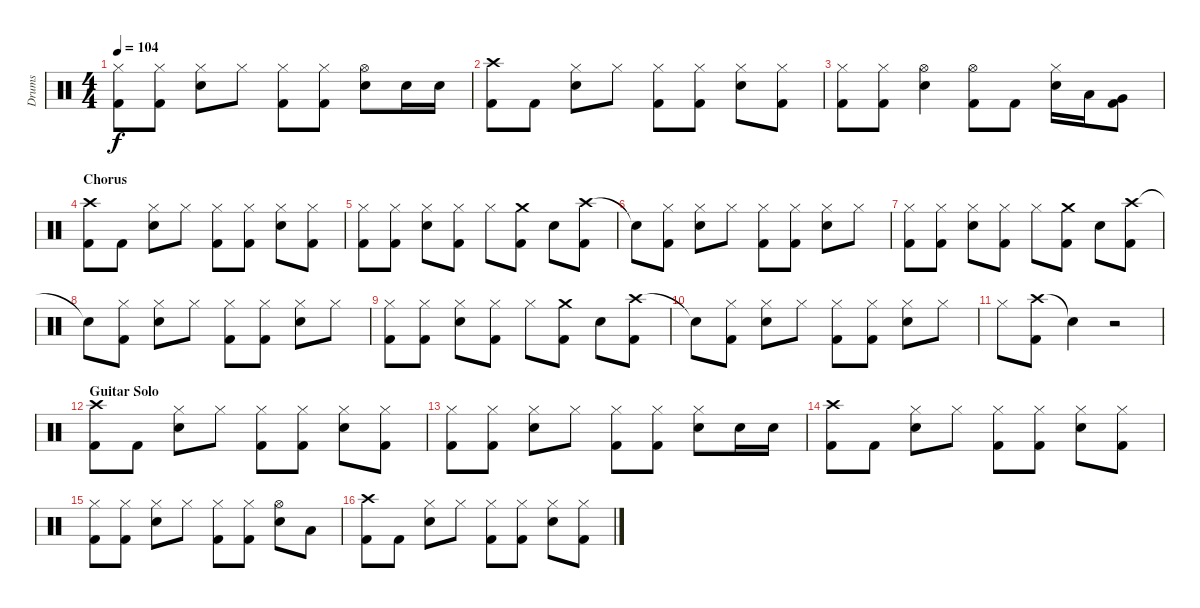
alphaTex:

\track ("Drums" "Drums") {instrument percussion}
\staff {score}
\articulation defaults
\ts (4 4)
\tempo 104
\clef neutral
\ks c
("Hi-Hat (closed)" "Kick (hit) 2").8{dy f} ("Hi-Hat (closed)" "Kick (hit) 2").8 ("Hi-Hat (closed)" "Electric Snare (hit)").8 "Hi-Hat (closed)".8 ("Hi-Hat (closed)" "Kick (hit) 2").8 ("Hi-Hat (closed)" "Kick (hit) 2").8 ("Hi-Hat (open)" "Electric Snare (hit)").8 "Electric Snare (hit)".16 "Electric Snare (hit)".16 |
("Crash high (hit)" "Kick (hit) 2").8 "Kick (hit) 2".8 ("Hi-Hat (closed)" "Electric Snare (hit)").8 "Hi-Hat (closed)".8 ("Hi-Hat (closed)" "Kick (hit) 2").8 ("Hi-Hat (closed)" "Kick (hit) 2").8 ("Hi-Hat (closed)" "Electric Snare (hit)").8 ("Hi-Hat (closed)" "Kick (hit) 2").8 |
("Hi-Hat (closed)" "Kick (hit) 2").8 ("Hi-Hat (closed)" "Kick (hit) 2").8 ("Hi-Hat (open)" "Electric Snare (hit)").4 ("Hi-Hat (open)" "Kick (hit) 2").8 "Kick (hit) 2".8 ("Hi-Hat (closed)" "Electric Snare (hit)").16 "Low Tom (hit)".16 ("Very Low Tom (hit)" "Kick (hit) 2").8 |
\section ("" "Chorus")
("Crash high (hit)" "Kick (hit) 2").8 "Kick (hit) 2".8 ("Hi-Hat (closed)" "Electric Snare (hit)").8 "Hi-Hat (closed)".8 ("Hi-Hat (closed)" "Kick (hit) 2").8 ("Hi-Hat (closed)" "Kick (hit) 2").8 ("Hi-Hat (closed)" "Electric Snare (hit)").8 ("Hi-Hat (closed)" "Kick (hit) 2").8 |
("Hi-Hat (closed)" "Kick (hit) 2").8 ("Hi-Hat (closed)" "Kick (hit) 2").8 ("Hi-Hat (closed)" "Electric Snare (hit)").8 ("Hi-Hat (closed)" "Kick (hit) 2").8 "Hi-Hat (closed)".8 ("Crash medium (hit)" "Kick (hit) 2").8 "Electric Snare (hit)".8 ("Crash high (hit)" "Kick (hit) 2").8 |
"Snare (hit)"{t}.8 ("Hi-Hat (closed)" "Kick (hit) 2").8 ("Hi-Hat (closed)" "Electric Snare (hit)").8 "Hi-Hat (closed)".8 ("Hi-Hat (closed)" "Kick (hit) 2").8 ("Hi-Hat (closed)" "Kick (hit) 2").8 ("Hi-Hat (closed)" "Electric Snare (hit)").8 "Hi-Hat (closed)".8 |
("Hi-Hat (closed)" "Kick (hit) 2").8 ("Hi-Hat (closed)" "Kick (hit) 2").8 ("Hi-Hat (closed)" "Electric Snare (hit)").8 ("Hi-Hat (closed)" "Kick (hit) 2").8 "Hi-Hat (closed)".8 ("Crash medium (hit)" "Kick (hit) 2").8 "Electric Snare (hit)".8 ("Crash high (hit)" "Kick (hit) 2").8 |
"Snare (hit)"{t}.8 ("Hi-Hat (closed)" "Kick (hit) 2").8 ("Hi-Hat (closed)" "Electric Snare (hit)").8 "Hi-Hat (closed)".8 ("Hi-Hat (closed)" "Kick (hit) 2").8 ("Hi-Hat (closed)" "Kick (hit) 2").8 ("Hi-Hat (closed)" "Electric Snare (hit)").8 "Hi-Hat (closed)".8 |
("Hi-Hat (closed)" "Kick (hit) 2").8 ("Hi-Hat (closed)" "Kick (hit) 2").8 ("Hi-Hat (closed)" "Electric Snare (hit)").8 ("Hi-Hat (closed)" "Kick (hit) 2").8 "Hi-Hat (closed)".8 ("Crash medium (hit)" "Kick (hit) 2").8 "Electric Snare (hit)".8 ("Crash high (hit)" "Kick (hit) 2").8 |
"Snare (hit)"{t}.8 ("Hi-Hat (closed)" "Kick (hit) 2").8 ("Hi-Hat (closed)" "Electric Snare (hit)").8 "Hi-Hat (closed)".8 ("Hi-Hat (closed)" "Kick (hit) 2").8 ("Hi-Hat (closed)" "Kick (hit) 2").8 ("Hi-Hat (closed)" "Electric Snare (hit)").8 "Hi-Hat (closed)".8 |
"Hi-Hat (closed)".8 ("Crash high (hit)" "Kick (hit) 2").8 "Snare (hit)"{t}.4 r.2 |
\section ("" "Guitar Solo")
("Crash high (hit)" "Kick (hit) 2").8 "Kick (hit) 2".8 ("Hi-Hat (closed)" "Electric Snare (hit)").8 "Hi-Hat (closed)".8 ("Hi-Hat (closed)" "Kick (hit) 2").8 ("Hi-Hat (closed)" "Kick (hit) 2").8 ("Hi-Hat (closed)" "Electric Snare (hit)").8 ("Hi-Hat (closed)" "Kick (hit) 2").8 |
("Hi-Hat (closed)" "Kick (hit) 2").8 ("Hi-Hat (closed)" "Kick (hit) 2").8 ("Hi-Hat (closed)" "Electric Snare (hit)").8 "Hi-Hat (closed)".8 ("Hi-Hat (closed)" "Kick (hit) 2").8 ("Hi-Hat (closed)" "Kick (hit) 2").8 ("Hi-Hat (closed)" "Electric Snare (hit)").8 "Electric Snare (hit)".16 "Electric Snare (hit)".16 |
("Crash high (hit)" "Kick (hit) 2").8 "Kick (hit) 2".8 ("Hi-Hat (closed)" "Electric Snare (hit)").8 "Hi-Hat (closed)".8 ("Hi-Hat (closed)" "Kick (hit) 2").8 ("Hi-Hat (closed)" "Kick (hit) 2").8 ("Hi-Hat (closed)" "Electric Snare (hit)").8 ("Hi-Hat (closed)" "Kick (hit) 2").8 |
("Hi-Hat (closed)" "Kick (hit) 2").8 ("Hi-Hat (closed)" "Kick (hit) 2").8 ("Hi-Hat (closed)" "Electric Snare (hit)").8 "Hi-Hat (closed)".8 ("Hi-Hat (closed)" "Kick (hit) 2").8 ("Hi-Hat (closed)" "Kick (hit) 2").8 ("Hi-Hat (open)" "Electric Snare (hit)").8 "Low Tom (hit)".8 |
("Crash high (hit)" "Kick (hit) 2").8 "Kick (hit) 2".8 ("Hi-Hat (closed)" "Electric Snare (hit)").8 "Hi-Hat (closed)".8 ("Hi-Hat (closed)" "Kick (hit) 2").8 ("Hi-Hat (closed)" "Kick (hit) 2").8 ("Hi-Hat (closed)" "Electric Snare (hit)").8 ("Hi-Hat (closed)" "Kick (hit) 2").8
